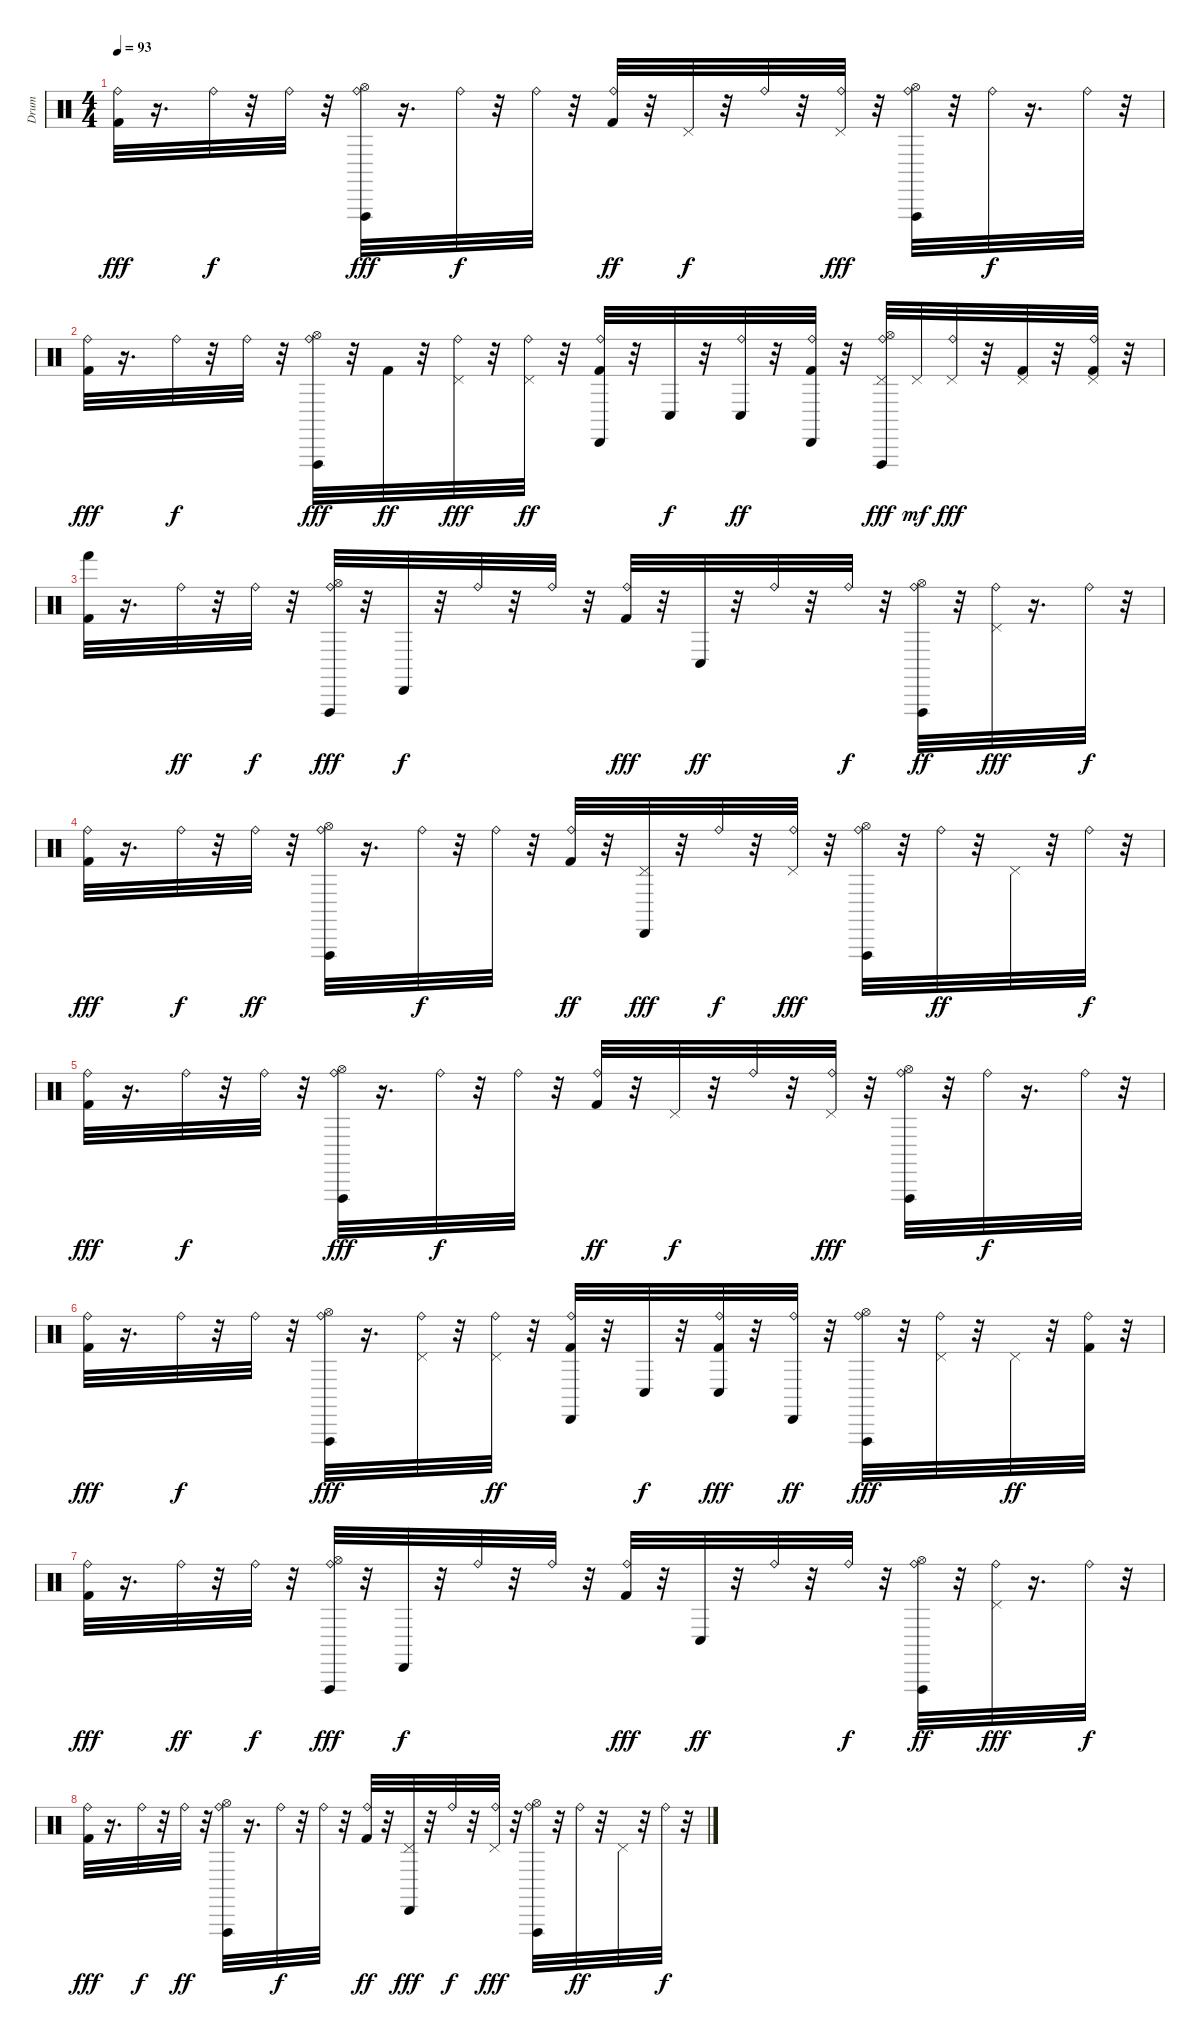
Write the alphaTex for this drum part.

\track ("Drum" "Drum") {instrument percussion}
\staff {score}
\articulation defaults
\ts (4 4)
\tempo 93
\clef neutral
\ks c
("Kick (hit) 2" "Ride (bell)").32{dy fff} r.16{d} "Ride (bell)".32{dy f} r.32 "Ride (bell)".32 r.32 ("Ride (bell)" "Vibraslap (hit)" "Hi-Hat (open)").32{dy fff} r.16{d} "Ride (bell)".32{dy f} r.32 "Ride (bell)".32 r.32 ("Kick (hit) 2" "Ride (bell)").32{dy ff} r.32 "Pedal Hi-Hat (hit)".32{dy f} r.32 "Ride (bell)".32 r.32 ("Ride (bell)" "Pedal Hi-Hat (hit)").32{dy fff} r.32 ("Ride (bell)" "Vibraslap (hit)" "Hi-Hat (open)").32 r.32 "Ride (bell)".32{dy f} r.16{d} "Ride (bell)".32 r.32 |
("Kick (hit) 2" "Ride (bell)").32{dy fff} r.16{d} "Ride (bell)".32{dy f} r.32 "Ride (bell)".32 r.32 ("Ride (bell)" "Vibraslap (hit)" "Hi-Hat (open)").32{dy fff} r.32 "Kick (hit) 2".32{dy ff} r.32 ("Ride (bell)" "Pedal Hi-Hat (hit)").32{dy fff} r.32 ("Ride (bell)" "Pedal Hi-Hat (hit)").32{dy ff} r.32 ("Cabasa (hit)" "Kick (hit) 2" "Ride (bell)").32 r.32 "Conga low (hit)".32{dy f} r.32 ("Conga low (hit)" "Ride (bell)").32{dy ff} r.32 ("Cabasa (hit)" "Kick (hit) 2" "Ride (bell)").32 r.32 ("Ride (bell)" "Pedal Hi-Hat (hit)" "Vibraslap (hit)" "Hi-Hat (open)").32{dy fff} "Pedal Hi-Hat (hit)".32{dy mf} ("Ride (bell)" "Pedal Hi-Hat (hit)").32{dy fff} r.32 ("Kick (hit) 2" "Pedal Hi-Hat (hit)").32 r.32 ("Kick (hit) 2" "Ride (bell)" "Pedal Hi-Hat (hit)").32 r.32 |
("Kick (hit) 2" "Hand (hit)").32 r.16{d} "Ride (bell)".32{dy ff} r.32 "Ride (bell)".32{dy f} r.32 ("Ride (bell)" "Vibraslap (hit)" "Hi-Hat (open)").32{dy fff} r.32 "Cabasa (hit)".32{dy f} r.32 "Ride (bell)".32 r.32 "Ride (bell)".32 r.32 ("Kick (hit) 2" "Ride (bell)").32{dy fff} r.32 "Conga low (hit)".32{dy ff} r.32 "Ride (bell)".32 r.32 "Ride (bell)".32{dy f} r.32 ("Ride (bell)" "Vibraslap (hit)" "Hi-Hat (open)").32{dy ff} r.32 ("Ride (bell)" "Pedal Hi-Hat (hit)").32{dy fff} r.16{d} "Ride (bell)".32{dy f} r.32 |
("Kick (hit) 2" "Ride (bell)").32{dy fff} r.16{d} "Ride (bell)".32{dy f} r.32 "Ride (bell)".32{dy ff} r.32 ("Ride (bell)" "Vibraslap (hit)" "Hi-Hat (open)").32 r.16{d} "Ride (bell)".32{dy f} r.32 "Ride (bell)".32 r.32 ("Kick (hit) 2" "Ride (bell)").32{dy ff} r.32 ("Cabasa (hit)" "Pedal Hi-Hat (hit)").32{dy fff} r.32 "Ride (bell)".32{dy f} r.32 ("Ride (bell)" "Pedal Hi-Hat (hit)").32{dy fff} r.32 ("Ride (bell)" "Vibraslap (hit)" "Hi-Hat (open)").32 r.32 "Ride (bell)".32{dy ff} r.32 "Pedal Hi-Hat (hit)".32 r.32 "Ride (bell)".32{dy f} r.32 |
("Kick (hit) 2" "Ride (bell)").32{dy fff} r.16{d} "Ride (bell)".32{dy f} r.32 "Ride (bell)".32 r.32 ("Ride (bell)" "Vibraslap (hit)" "Hi-Hat (open)").32{dy fff} r.16{d} "Ride (bell)".32{dy f} r.32 "Ride (bell)".32 r.32 ("Kick (hit) 2" "Ride (bell)").32{dy ff} r.32 "Pedal Hi-Hat (hit)".32{dy f} r.32 "Ride (bell)".32 r.32 ("Ride (bell)" "Pedal Hi-Hat (hit)").32{dy fff} r.32 ("Ride (bell)" "Vibraslap (hit)" "Hi-Hat (open)").32 r.32 "Ride (bell)".32{dy f} r.16{d} "Ride (bell)".32 r.32 |
("Kick (hit) 2" "Ride (bell)").32{dy fff} r.16{d} "Ride (bell)".32{dy f} r.32 "Ride (bell)".32 r.32 ("Ride (bell)" "Vibraslap (hit)" "Hi-Hat (open)").32{dy fff} r.16{d} ("Ride (bell)" "Pedal Hi-Hat (hit)").32 r.32 ("Ride (bell)" "Pedal Hi-Hat (hit)").32{dy ff} r.32 ("Cabasa (hit)" "Kick (hit) 2" "Ride (bell)").32 r.32 "Conga low (hit)".32{dy f} r.32 ("Conga low (hit)" "Kick (hit) 2" "Ride (bell)").32{dy fff} r.32 ("Cabasa (hit)" "Ride (bell)").32{dy ff} r.32 ("Ride (bell)" "Vibraslap (hit)" "Hi-Hat (open)").32{dy fff} r.32 ("Ride (bell)" "Pedal Hi-Hat (hit)").32 r.32 "Pedal Hi-Hat (hit)".32{dy ff} r.32 ("Kick (hit) 2" "Ride (bell)").32 r.32 |
("Kick (hit) 2" "Ride (bell)").32{dy fff} r.16{d} "Ride (bell)".32{dy ff} r.32 "Ride (bell)".32{dy f} r.32 ("Ride (bell)" "Vibraslap (hit)" "Hi-Hat (open)").32{dy fff} r.32 "Cabasa (hit)".32{dy f} r.32 "Ride (bell)".32 r.32 "Ride (bell)".32 r.32 ("Kick (hit) 2" "Ride (bell)").32{dy fff} r.32 "Conga low (hit)".32{dy ff} r.32 "Ride (bell)".32 r.32 "Ride (bell)".32{dy f} r.32 ("Ride (bell)" "Vibraslap (hit)" "Hi-Hat (open)").32{dy ff} r.32 ("Ride (bell)" "Pedal Hi-Hat (hit)").32{dy fff} r.16{d} "Ride (bell)".32{dy f} r.32 |
("Kick (hit) 2" "Ride (bell)").32{dy fff} r.16{d} "Ride (bell)".32{dy f} r.32 "Ride (bell)".32{dy ff} r.32 ("Ride (bell)" "Vibraslap (hit)" "Hi-Hat (open)").32 r.16{d} "Ride (bell)".32{dy f} r.32 "Ride (bell)".32 r.32 ("Kick (hit) 2" "Ride (bell)").32{dy ff} r.32 ("Cabasa (hit)" "Pedal Hi-Hat (hit)").32{dy fff} r.32 "Ride (bell)".32{dy f} r.32 ("Ride (bell)" "Pedal Hi-Hat (hit)").32{dy fff} r.32 ("Ride (bell)" "Vibraslap (hit)" "Hi-Hat (open)").32 r.32 "Ride (bell)".32{dy ff} r.32 "Pedal Hi-Hat (hit)".32 r.32 "Ride (bell)".32{dy f} r.32
